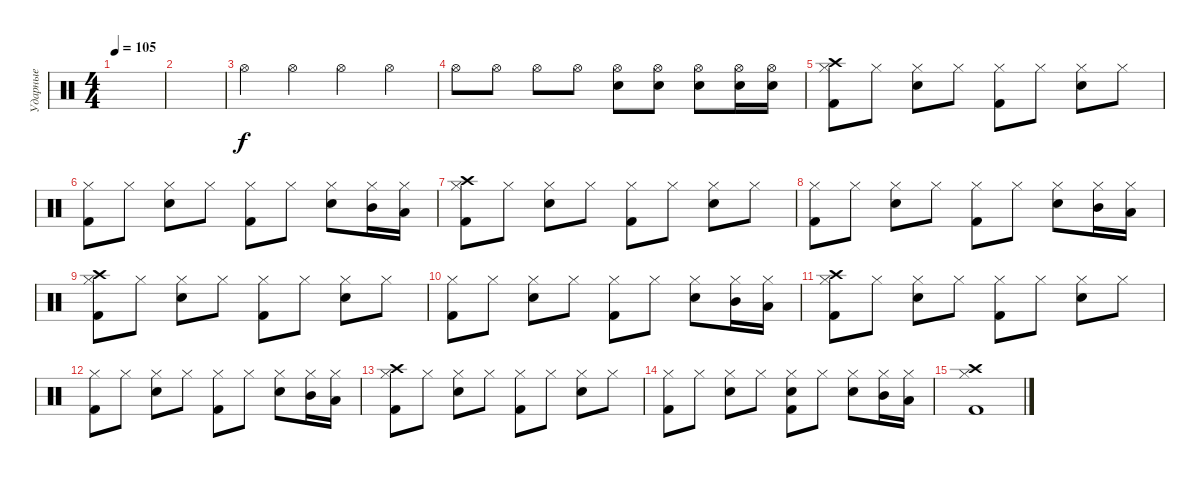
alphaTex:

\track ("Ударные" "Ударные") {instrument percussion}
\staff {score}
\articulation defaults
\ts (4 4)
\tempo 105
\clef neutral
\ks c
|
|
"Hi-Hat (open)".4 "Hi-Hat (open)".4 "Hi-Hat (open)".4 "Hi-Hat (open)".4 |
"Hi-Hat (open)".8 "Hi-Hat (open)".8 "Hi-Hat (open)".8 "Hi-Hat (open)".8 ("Snare (hit) 2" "Hi-Hat (open)").8 ("Snare (hit) 2" "Hi-Hat (open)").8 ("Snare (hit) 2" "Hi-Hat (open)").8 ("Snare (hit) 2" "Hi-Hat (open)").16 ("Snare (hit) 2" "Hi-Hat (open)").16 |
("Crash high (hit)" "Kick (hit) 2" "Hi-Hat (closed)").8 "Hi-Hat (closed)".8 ("Snare (hit) 2" "Hi-Hat (closed)").8 "Hi-Hat (closed)".8 ("Kick (hit) 2" "Hi-Hat (closed)").8 "Hi-Hat (closed)".8 ("Snare (hit) 2" "Hi-Hat (closed)").8 "Hi-Hat (closed)".8 |
("Kick (hit) 2" "Hi-Hat (closed)").8 "Hi-Hat (closed)".8 ("Snare (hit) 2" "Hi-Hat (closed)").8 "Hi-Hat (closed)".8 ("Kick (hit) 2" "Hi-Hat (closed)").8 "Hi-Hat (closed)".8 ("Snare (hit) 2" "Hi-Hat (closed)").8 ("Mid Tom (hit)" "Hi-Hat (closed)").16 ("Low Tom (hit)" "Hi-Hat (closed)").16 |
("Crash high (hit)" "Kick (hit) 2" "Hi-Hat (closed)").8 "Hi-Hat (closed)".8 ("Snare (hit) 2" "Hi-Hat (closed)").8 "Hi-Hat (closed)".8 ("Kick (hit) 2" "Hi-Hat (closed)").8 "Hi-Hat (closed)".8 ("Snare (hit) 2" "Hi-Hat (closed)").8 "Hi-Hat (closed)".8 |
("Kick (hit) 2" "Hi-Hat (closed)").8 "Hi-Hat (closed)".8 ("Snare (hit) 2" "Hi-Hat (closed)").8 "Hi-Hat (closed)".8 ("Kick (hit) 2" "Hi-Hat (closed)").8 "Hi-Hat (closed)".8 ("Snare (hit) 2" "Hi-Hat (closed)").8 ("Mid Tom (hit)" "Hi-Hat (closed)").16 ("Low Tom (hit)" "Hi-Hat (closed)").16 |
("Crash high (hit)" "Kick (hit) 2" "Hi-Hat (closed)").8 "Hi-Hat (closed)".8 ("Snare (hit) 2" "Hi-Hat (closed)").8 "Hi-Hat (closed)".8 ("Kick (hit) 2" "Hi-Hat (closed)").8 "Hi-Hat (closed)".8 ("Snare (hit) 2" "Hi-Hat (closed)").8 "Hi-Hat (closed)".8 |
("Kick (hit) 2" "Hi-Hat (closed)").8 "Hi-Hat (closed)".8 ("Snare (hit) 2" "Hi-Hat (closed)").8 "Hi-Hat (closed)".8 ("Kick (hit) 2" "Hi-Hat (closed)").8 "Hi-Hat (closed)".8 ("Snare (hit) 2" "Hi-Hat (closed)").8 ("Mid Tom (hit)" "Hi-Hat (closed)").16 ("Low Tom (hit)" "Hi-Hat (closed)").16 |
("Crash high (hit)" "Kick (hit) 2" "Hi-Hat (closed)").8 "Hi-Hat (closed)".8 ("Snare (hit) 2" "Hi-Hat (closed)").8 "Hi-Hat (closed)".8 ("Kick (hit) 2" "Hi-Hat (closed)").8 "Hi-Hat (closed)".8 ("Snare (hit) 2" "Hi-Hat (closed)").8 "Hi-Hat (closed)".8 |
("Kick (hit) 2" "Hi-Hat (closed)").8 "Hi-Hat (closed)".8 ("Snare (hit) 2" "Hi-Hat (closed)").8 "Hi-Hat (closed)".8 ("Kick (hit) 2" "Hi-Hat (closed)").8 "Hi-Hat (closed)".8 ("Snare (hit) 2" "Hi-Hat (closed)").8 ("Mid Tom (hit)" "Hi-Hat (closed)").16 ("Low Tom (hit)" "Hi-Hat (closed)").16 |
("Crash high (hit)" "Kick (hit) 2" "Hi-Hat (closed)").8 "Hi-Hat (closed)".8 ("Snare (hit) 2" "Hi-Hat (closed)").8 "Hi-Hat (closed)".8 ("Kick (hit) 2" "Hi-Hat (closed)").8 "Hi-Hat (closed)".8 ("Snare (hit) 2" "Hi-Hat (closed)").8 "Hi-Hat (closed)".8 |
("Kick (hit) 2" "Hi-Hat (closed)").8 "Hi-Hat (closed)".8 ("Snare (hit) 2" "Hi-Hat (closed)").8 "Hi-Hat (closed)".8 ("Snare (hit) 2" "Kick (hit) 2" "Hi-Hat (closed)").8 "Hi-Hat (closed)".8 ("Snare (hit) 2" "Hi-Hat (closed)").8 ("Mid Tom (hit)" "Hi-Hat (closed)").16 ("Low Tom (hit)" "Hi-Hat (closed)").16 |
("Crash high (hit)" "Kick (hit) 2" "Hi-Hat (closed)").1
